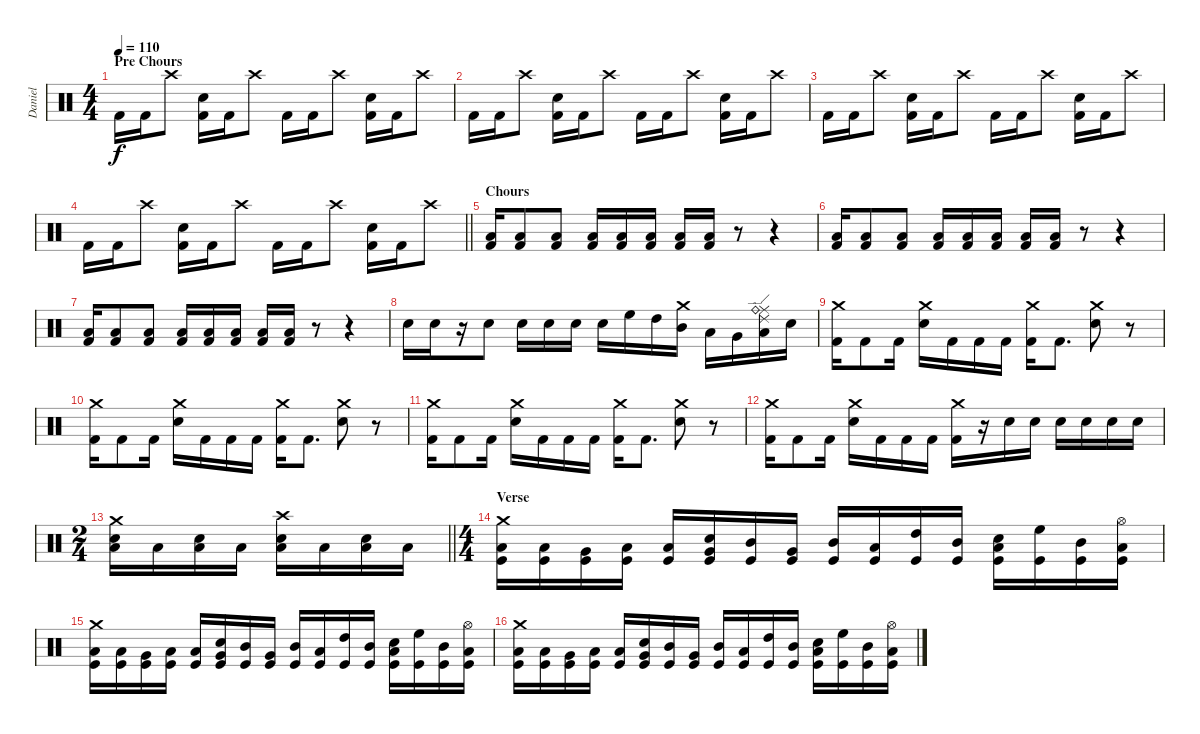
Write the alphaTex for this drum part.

\track ("Daniel" "Daniel") {instrument percussion}
\staff {score}
\articulation defaults
\ts (4 4)
\section ("" "Pre Chours")
\tempo 110
\clef neutral
\ks c "Kick (hit) 2".16{dy f} "Kick (hit) 2".16 "Crash high (hit)".8
("Snare (hit) 2" "Kick (hit) 2").16 "Kick (hit) 2".16 "Crash high (hit)".8 "Kick (hit) 2".16 "Kick (hit) 2".16 "Crash high (hit)".8 ("Snare (hit) 2" "Kick (hit) 2").16 "Kick (hit) 2".16 "Crash high (hit)".8 |
"Kick (hit) 2".16 "Kick (hit) 2".16 "Crash high (hit)".8 ("Snare (hit) 2" "Kick (hit) 2").16 "Kick (hit) 2".16 "Crash high (hit)".8 "Kick (hit) 2".16 "Kick (hit) 2".16 "Crash high (hit)".8 ("Snare (hit) 2" "Kick (hit) 2").16 "Kick (hit) 2".16 "Crash high (hit)".8 |
"Kick (hit) 2".16 "Kick (hit) 2".16 "Crash high (hit)".8 ("Snare (hit) 2" "Kick (hit) 2").16 "Kick (hit) 2".16 "Crash high (hit)".8 "Kick (hit) 2".16 "Kick (hit) 2".16 "Crash high (hit)".8 ("Snare (hit) 2" "Kick (hit) 2").16 "Kick (hit) 2".16 "Crash high (hit)".8 |
\barLineRight lightlight "Kick (hit) 2".16 "Kick (hit) 2".16 "Crash high (hit)".8
("Snare (hit) 2" "Kick (hit) 2").16 "Kick (hit) 2".16 "Crash high (hit)".8 "Kick (hit) 2".16 "Kick (hit) 2".16 "Crash high (hit)".8 ("Snare (hit) 2" "Kick (hit) 2").16 "Kick (hit) 2".16 "Crash high (hit)".8 |
\section ("" "Chours")
("Low Floor Tom (hit)" "Kick (hit) 2").16 ("Low Floor Tom (hit)" "Kick (hit) 2").8 ("Low Floor Tom (hit)" "Kick (hit) 2").8 ("Low Floor Tom (hit)" "Kick (hit) 2").16 ("Low Floor Tom (hit)" "Kick (hit) 2").16 ("Low Floor Tom (hit)" "Kick (hit) 2").16 ("Low Floor Tom (hit)" "Kick (hit) 2").16 ("Low Floor Tom (hit)" "Kick (hit) 2").16 r.8 r.4 |
("Low Floor Tom (hit)" "Kick (hit) 2").16 ("Low Floor Tom (hit)" "Kick (hit) 2").8 ("Low Floor Tom (hit)" "Kick (hit) 2").8 ("Low Floor Tom (hit)" "Kick (hit) 2").16 ("Low Floor Tom (hit)" "Kick (hit) 2").16 ("Low Floor Tom (hit)" "Kick (hit) 2").16 ("Low Floor Tom (hit)" "Kick (hit) 2").16 ("Low Floor Tom (hit)" "Kick (hit) 2").16 r.8 r.4 |
("Low Floor Tom (hit)" "Kick (hit) 2").16 ("Low Floor Tom (hit)" "Kick (hit) 2").8 ("Low Floor Tom (hit)" "Kick (hit) 2").8 ("Low Floor Tom (hit)" "Kick (hit) 2").16 ("Low Floor Tom (hit)" "Kick (hit) 2").16 ("Low Floor Tom (hit)" "Kick (hit) 2").16 ("Low Floor Tom (hit)" "Kick (hit) 2").16 ("Low Floor Tom (hit)" "Kick (hit) 2").16 r.8 r.4 |
"Electric Snare (hit)".16 "Electric Snare (hit)".16 r.16 "Electric Snare (hit)".8 "Electric Snare (hit)".16 "Electric Snare (hit)".16 "Electric Snare (hit)".16 "Electric Snare (hit)".16 "High Floor Tom (hit)".16 "High Tom (hit)".16 ("Crash medium (hit)" "Mid Tom (hit)").16 "Low Tom (hit)".16 "Very Low Tom (hit)".16 ("Ride (edge) 2" "Ride (middle)" "Ride (bell)" "Low Floor Tom (hit)").16 "Electric Snare (hit)".16 |
("Crash medium (hit)" "Kick (hit) 2").16 "Kick (hit) 2".8 "Kick (hit) 2".16 ("Crash medium (hit)" "Snare (hit) 2").16 "Kick (hit) 2".16 "Kick (hit) 2".16 "Kick (hit) 2".16 ("Crash medium (hit)" "Kick (hit) 2").16 "Kick (hit) 2".8{d} ("Crash medium (hit)" "Snare (hit) 2").8 r.8 |
("Crash medium (hit)" "Kick (hit) 2").16 "Kick (hit) 2".8 "Kick (hit) 2".16 ("Crash medium (hit)" "Snare (hit) 2").16 "Kick (hit) 2".16 "Kick (hit) 2".16 "Kick (hit) 2".16 ("Crash medium (hit)" "Kick (hit) 2").16 "Kick (hit) 2".8{d} ("Crash medium (hit)" "Snare (hit) 2").8 r.8 |
("Crash medium (hit)" "Kick (hit) 2").16 "Kick (hit) 2".8 "Kick (hit) 2".16 ("Crash medium (hit)" "Snare (hit) 2").16 "Kick (hit) 2".16 "Kick (hit) 2".16 "Kick (hit) 2".16 ("Crash medium (hit)" "Kick (hit) 2").16 "Kick (hit) 2".8{d} ("Crash medium (hit)" "Snare (hit) 2").8 r.8 |
("Crash medium (hit)" "Kick (hit) 2").16 "Kick (hit) 2".8 "Kick (hit) 2".16 ("Crash medium (hit)" "Snare (hit) 2").16 "Kick (hit) 2".16 "Kick (hit) 2".16 "Kick (hit) 2".16 ("Crash medium (hit)" "Kick (hit) 2").16 r.16 "Electric Snare (hit)".16 "Electric Snare (hit)".16 "Electric Snare (hit)".16 "Electric Snare (hit)".16 "Electric Snare (hit)".16 "Electric Snare (hit)".16 |
\ts (2 4)
\barLineRight lightlight
("Crash medium (hit)" "Snare (hit) 2" "Low Floor Tom (hit)").16 "Low Floor Tom (hit)".16 ("Snare (hit) 2" "Low Floor Tom (hit)").16 "Low Floor Tom (hit)".16 ("Crash high (hit)" "Snare (hit) 2" "Low Floor Tom (hit)").16 "Low Floor Tom (hit)".16 ("Snare (hit) 2" "Low Floor Tom (hit)").16 "Low Floor Tom (hit)".16 |
\ts (4 4)
\section ("" "Verse")
("Kick (hit)" "Crash medium (hit)" "Low Tom (hit)").16 ("Kick (hit)" "Low Tom (hit)").16 ("Kick (hit)" "Very Low Tom (hit)").16 ("Kick (hit)" "Low Floor Tom (hit)").16 ("Kick (hit)" "Low Tom (hit)").16 ("Kick (hit)" "Snare (hit) 2" "Very Low Tom (hit)").16 ("Kick (hit)" "Mid Tom (hit)").16 ("Kick (hit)" "Very Low Tom (hit)").16 ("Kick (hit)" "Mid Tom (hit)").16 ("Kick (hit)" "Low Tom (hit)").16 ("Kick (hit)" "High Tom (hit)").16 ("Kick (hit)" "Mid Tom (hit)").16 ("Kick (hit)" "Snare (hit) 2" "Low Tom (hit)").16 ("Kick (hit)" "High Floor Tom (hit)").16 ("Kick (hit)" "Mid Tom (hit)").16 ("Kick (hit)" "Hi-Hat (open)" "Low Tom (hit)").16 |
("Kick (hit)" "Crash medium (hit)" "Low Tom (hit)").16 ("Kick (hit)" "Low Tom (hit)").16 ("Kick (hit)" "Very Low Tom (hit)").16 ("Kick (hit)" "Low Floor Tom (hit)").16 ("Kick (hit)" "Low Tom (hit)").16 ("Kick (hit)" "Snare (hit) 2" "Very Low Tom (hit)").16 ("Kick (hit)" "Mid Tom (hit)").16 ("Kick (hit)" "Very Low Tom (hit)").16 ("Kick (hit)" "Mid Tom (hit)").16 ("Kick (hit)" "Low Tom (hit)").16 ("Kick (hit)" "High Tom (hit)").16 ("Kick (hit)" "Mid Tom (hit)").16 ("Kick (hit)" "Snare (hit) 2" "Low Tom (hit)").16 ("Kick (hit)" "High Floor Tom (hit)").16 ("Kick (hit)" "Mid Tom (hit)").16 ("Kick (hit)" "Hi-Hat (open)" "Low Tom (hit)").16 |
("Kick (hit)" "Crash medium (hit)" "Low Tom (hit)").16 ("Kick (hit)" "Low Tom (hit)").16 ("Kick (hit)" "Very Low Tom (hit)").16 ("Kick (hit)" "Low Floor Tom (hit)").16 ("Kick (hit)" "Low Tom (hit)").16 ("Kick (hit)" "Snare (hit) 2" "Very Low Tom (hit)").16 ("Kick (hit)" "Mid Tom (hit)").16 ("Kick (hit)" "Very Low Tom (hit)").16 ("Kick (hit)" "Mid Tom (hit)").16 ("Kick (hit)" "Low Tom (hit)").16 ("Kick (hit)" "High Tom (hit)").16 ("Kick (hit)" "Mid Tom (hit)").16 ("Kick (hit)" "Snare (hit) 2" "Low Tom (hit)").16 ("Kick (hit)" "High Floor Tom (hit)").16 ("Kick (hit)" "Mid Tom (hit)").16 ("Kick (hit)" "Hi-Hat (open)" "Low Tom (hit)").16
